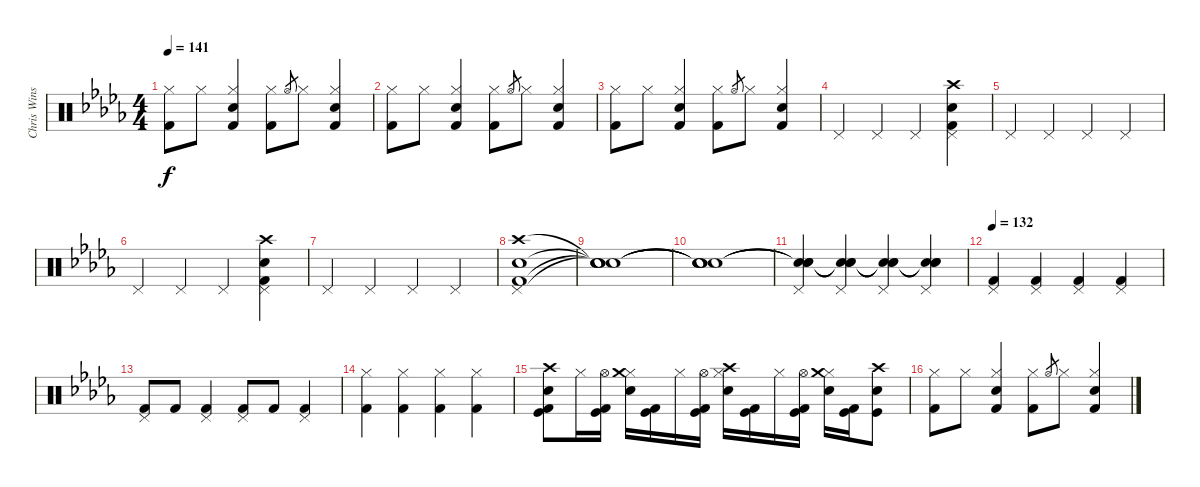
\track ("Chris Winship (Drums)" "Chris Wins") {instrument percussion}
\staff {score}
\articulation defaults
\ts (4 4)
\tempo 141
\clef neutral
\ks db
("Kick (hit) 2" "Hi-Hat (closed)").8{dy f} "Hi-Hat (closed)".8 ("Hi-Hat (closed)" "Kick (hit) 2" "Electric Snare (hit)").4 ("Kick (hit) 2" "Hi-Hat (closed)").8 "Hi-Hat (open)".8{gr} "Hi-Hat (closed)".8 ("Hi-Hat (closed)" "Kick (hit) 2" "Electric Snare (hit)").4 |
("Kick (hit) 2" "Hi-Hat (closed)").8 "Hi-Hat (closed)".8 ("Hi-Hat (closed)" "Kick (hit) 2" "Electric Snare (hit)").4 ("Kick (hit) 2" "Hi-Hat (closed)").8 "Hi-Hat (open)".8{gr} "Hi-Hat (closed)".8 ("Hi-Hat (closed)" "Kick (hit) 2" "Electric Snare (hit)").4 |
("Kick (hit) 2" "Hi-Hat (closed)").8 "Hi-Hat (closed)".8 ("Hi-Hat (closed)" "Kick (hit) 2" "Electric Snare (hit)").4 ("Kick (hit) 2" "Hi-Hat (closed)").8 "Hi-Hat (open)".8{gr} "Hi-Hat (closed)".8 ("Hi-Hat (closed)" "Kick (hit) 2" "Electric Snare (hit)").4 |
"Pedal Hi-Hat (hit)".4 "Pedal Hi-Hat (hit)".4 "Pedal Hi-Hat (hit)".4 ("Pedal Hi-Hat (hit)" "Kick (hit) 2" "Electric Snare (hit)" "Crash high (hit)").4 |
"Pedal Hi-Hat (hit)".4 "Pedal Hi-Hat (hit)".4 "Pedal Hi-Hat (hit)".4 "Pedal Hi-Hat (hit)".4 |
"Pedal Hi-Hat (hit)".4 "Pedal Hi-Hat (hit)".4 "Pedal Hi-Hat (hit)".4 ("Pedal Hi-Hat (hit)" "Kick (hit) 2" "Electric Snare (hit)" "Crash high (hit)").4 |
"Pedal Hi-Hat (hit)".4 "Pedal Hi-Hat (hit)".4 "Pedal Hi-Hat (hit)".4 "Pedal Hi-Hat (hit)".4 |
("Crash high (hit)" "Pedal Hi-Hat (hit)" "Kick (hit) 2" "Electric Snare (hit)").1 |
("Snare (hit)"{t} "Snare (hit)"{t} "Snare (hit)"{t} "Snare (hit)"{t}).1 |
("Snare (hit)"{t} "Snare (hit)"{t} "Snare (hit)"{t} "Snare (hit)"{t}).1 |
("Snare (hit)"{t} "Snare (hit)"{t} "Snare (hit)"{t} "Pedal Hi-Hat (hit)").4 ("Snare (hit)"{t} "Snare (hit)"{t} "Snare (hit)"{t} "Pedal Hi-Hat (hit)").4 ("Snare (hit)"{t} "Snare (hit)"{t} "Snare (hit)"{t} "Pedal Hi-Hat (hit)").4 ("Snare (hit)"{t} "Snare (hit)"{t} "Snare (hit)"{t} "Pedal Hi-Hat (hit)").4 |
\tempo 132
("Pedal Hi-Hat (hit)" "Kick (hit) 2").4 ("Pedal Hi-Hat (hit)" "Kick (hit) 2").4 ("Pedal Hi-Hat (hit)" "Kick (hit) 2").4 ("Pedal Hi-Hat (hit)" "Kick (hit) 2").4 |
("Pedal Hi-Hat (hit)" "Kick (hit) 2").8 "Kick (hit) 2".8 ("Pedal Hi-Hat (hit)" "Kick (hit) 2").4 ("Pedal Hi-Hat (hit)" "Kick (hit) 2").8 "Kick (hit) 2".8 ("Pedal Hi-Hat (hit)" "Kick (hit) 2").4 |
("Hi-Hat (closed)" "Kick (hit) 2").4 ("Kick (hit) 2" "Hi-Hat (closed)").4 ("Kick (hit) 2" "Hi-Hat (closed)").4 ("Kick (hit) 2" "Hi-Hat (closed)").4 |
("Electric Snare (hit)" "Kick (hit)" "Kick (hit) 2" "Crash high (hit)").8 "Hi-Hat (closed)".16 ("Kick (hit)" "Hi-Hat (open)" "Kick (hit) 2").16 ("Electric Snare (hit)" "Hi-Hat (closed)" "Crash medium (hit)").16 ("Kick (hit)" "Kick (hit) 2").16 "Hi-Hat (closed)".16 ("Kick (hit)" "Hi-Hat (open)" "Kick (hit) 2").16 ("Electric Snare (hit)" "Hi-Hat (closed)" "Crash high (hit)").16 ("Kick (hit)" "Kick (hit) 2").16 "Hi-Hat (closed)".16 ("Kick (hit)" "Hi-Hat (open)" "Kick (hit) 2").16 ("Electric Snare (hit)" "Hi-Hat (closed)" "Crash medium (hit)").16 ("Kick (hit)" "Kick (hit) 2").16 ("Crash high (hit)" "Electric Snare (hit)" "Kick (hit)").8 |
("Kick (hit) 2" "Hi-Hat (closed)").8 "Hi-Hat (closed)".8 ("Hi-Hat (closed)" "Kick (hit) 2" "Electric Snare (hit)").4 ("Kick (hit) 2" "Hi-Hat (closed)").8 "Hi-Hat (open)".8{gr} "Hi-Hat (closed)".8 ("Hi-Hat (closed)" "Kick (hit) 2" "Electric Snare (hit)").4
